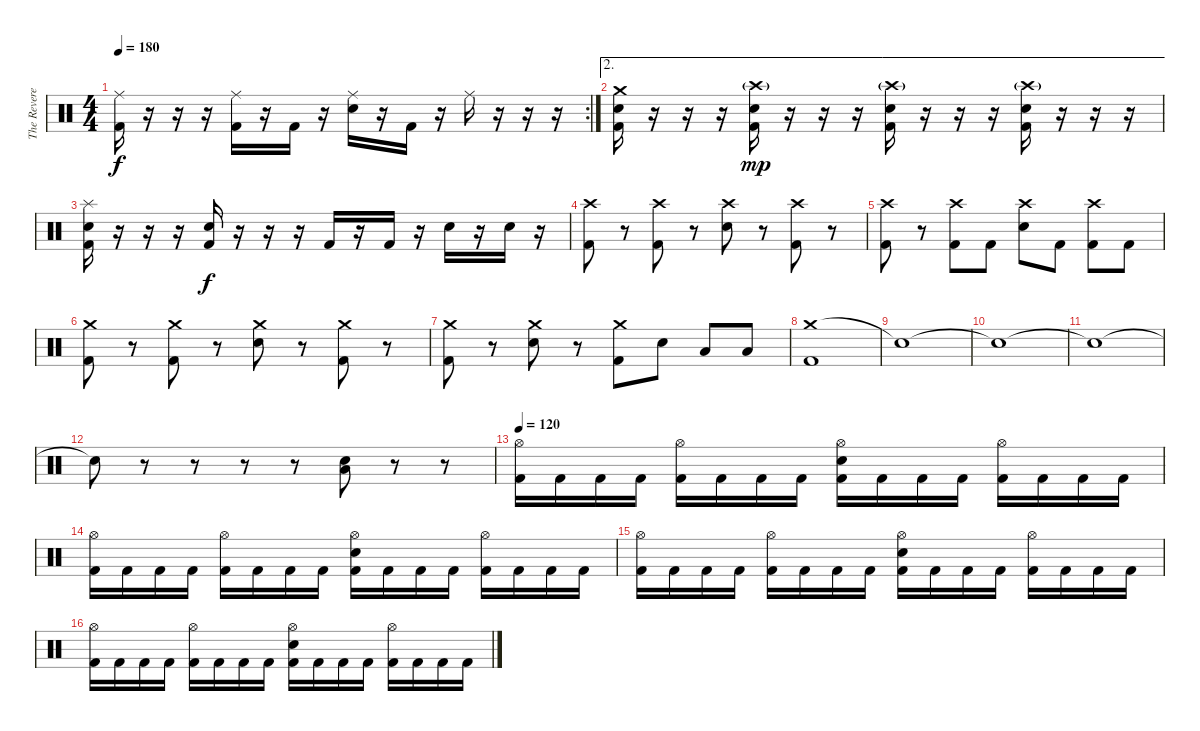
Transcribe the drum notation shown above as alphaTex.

\track ("The Reverend" "The Revere") {instrument percussion}
\staff {score}
\articulation defaults
\rc 2
\ts (4 4)
\tempo 180
\clef neutral
\ks c
("Ride (middle)" "Kick (hit) 2").16{dy f} r.16 r.16 r.16 ("Ride (middle)" "Kick (hit) 2").16 r.16 "Kick (hit) 2".16 r.16 ("Ride (middle)" "Snare (hit) 2").16 r.16 "Kick (hit) 2".16 r.16 "Ride (middle)".16 r.16 r.16 r.16 |
\ae 2
("Crash medium (hit)" "Snare (hit) 2" "Kick (hit) 2").16 r.16 r.16 r.16 ("Crash high (hit)"{g} "Snare (hit) 2" "Kick (hit) 2").16{dy mp} r.16 r.16 r.16 ("Crash high (hit)"{g} "Snare (hit) 2" "Kick (hit) 2").16 r.16 r.16 r.16 ("Crash high (hit)"{g} "Snare (hit) 2" "Kick (hit) 2").16 r.16 r.16 r.16 |
("Splash (hit)" "Snare (hit) 2" "Kick (hit) 2").16 r.16 r.16 r.16 ("Snare (hit) 2" "Kick (hit) 2").16{dy f} r.16 r.16 r.16 "Kick (hit) 2".16 r.16 "Kick (hit) 2".16 r.16 "Snare (hit) 2".16 r.16 "Snare (hit) 2".16 r.16 |
("Crash high (hit)" "Kick (hit) 2").8 r.8 ("Crash high (hit)" "Kick (hit) 2").8 r.8 ("Crash high (hit)" "Snare (hit) 2").8 r.8 ("Crash high (hit)" "Kick (hit) 2").8 r.8 |
("Crash high (hit)" "Kick (hit) 2").8 r.8 ("Crash high (hit)" "Kick (hit) 2").8 "Kick (hit) 2".8 ("Crash high (hit)" "Snare (hit) 2").8 "Kick (hit) 2".8 ("Crash high (hit)" "Kick (hit) 2").8 "Kick (hit) 2".8 |
("Crash medium (hit)" "Kick (hit) 2").8 r.8 ("Crash medium (hit)" "Kick (hit) 2").8 r.8 ("Crash medium (hit)" "Snare (hit) 2").8 r.8 ("Crash medium (hit)" "Kick (hit) 2").8 r.8 |
("Crash medium (hit)" "Kick (hit) 2").8 r.8 ("Crash medium (hit)" "Snare (hit) 2").8 r.8 ("Crash medium (hit)" "Kick (hit) 2").8 "Snare (hit) 2".8 "Low Floor Tom (hit)".8 "Low Floor Tom (hit)".8 |
("Crash medium (hit)" "Kick (hit) 2").1 |
"Snare (hit)"{t}.1 |
"Snare (hit)"{t}.1 |
"Snare (hit)"{t}.1 |
"Snare (hit)"{t}.8 r.8 r.8 r.8 r.8 ("Low Tom (hit)" "Snare (hit) 2").8 r.8 r.8 |
\tempo 120
("Hi-Hat (open)" "Kick (hit) 2").16 "Kick (hit) 2".16 "Kick (hit) 2".16 "Kick (hit) 2".16 ("Hi-Hat (open)" "Kick (hit) 2").16 "Kick (hit) 2".16 "Kick (hit) 2".16 "Kick (hit) 2".16 ("Hi-Hat (open)" "Snare (hit) 2" "Kick (hit) 2").16 "Kick (hit) 2".16 "Kick (hit) 2".16 "Kick (hit) 2".16 ("Hi-Hat (open)" "Kick (hit) 2").16 "Kick (hit) 2".16 "Kick (hit) 2".16 "Kick (hit) 2".16 |
("Hi-Hat (open)" "Kick (hit) 2").16 "Kick (hit) 2".16 "Kick (hit) 2".16 "Kick (hit) 2".16 ("Hi-Hat (open)" "Kick (hit) 2").16 "Kick (hit) 2".16 "Kick (hit) 2".16 "Kick (hit) 2".16 ("Hi-Hat (open)" "Snare (hit) 2" "Kick (hit) 2").16 "Kick (hit) 2".16 "Kick (hit) 2".16 "Kick (hit) 2".16 ("Hi-Hat (open)" "Kick (hit) 2").16 "Kick (hit) 2".16 "Kick (hit) 2".16 "Kick (hit) 2".16 |
("Hi-Hat (open)" "Kick (hit) 2").16 "Kick (hit) 2".16 "Kick (hit) 2".16 "Kick (hit) 2".16 ("Hi-Hat (open)" "Kick (hit) 2").16 "Kick (hit) 2".16 "Kick (hit) 2".16 "Kick (hit) 2".16 ("Hi-Hat (open)" "Snare (hit) 2" "Kick (hit) 2").16 "Kick (hit) 2".16 "Kick (hit) 2".16 "Kick (hit) 2".16 ("Hi-Hat (open)" "Kick (hit) 2").16 "Kick (hit) 2".16 "Kick (hit) 2".16 "Kick (hit) 2".16 |
("Hi-Hat (open)" "Kick (hit) 2").16 "Kick (hit) 2".16 "Kick (hit) 2".16 "Kick (hit) 2".16 ("Hi-Hat (open)" "Kick (hit) 2").16 "Kick (hit) 2".16 "Kick (hit) 2".16 "Kick (hit) 2".16 ("Hi-Hat (open)" "Snare (hit) 2" "Kick (hit) 2").16 "Kick (hit) 2".16 "Kick (hit) 2".16 "Kick (hit) 2".16 ("Hi-Hat (open)" "Kick (hit) 2").16 "Kick (hit) 2".16 "Kick (hit) 2".16 "Kick (hit) 2".16
